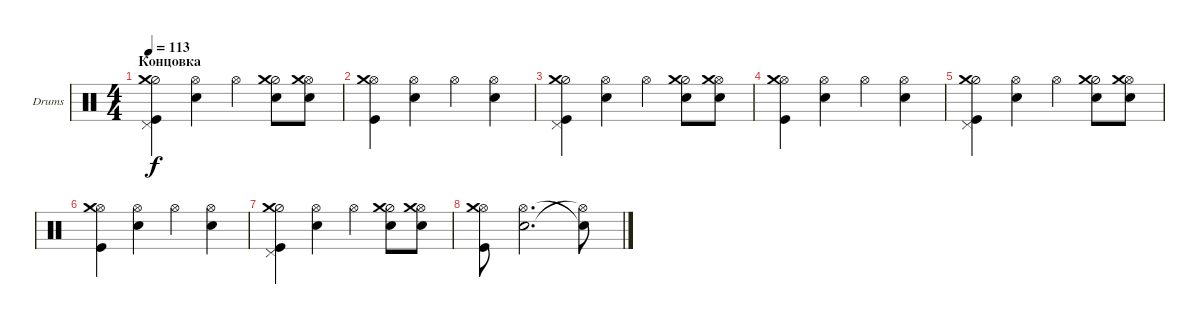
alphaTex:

\defaultSystemsLayout 4
\bracketExtendMode groupsimilarinstruments
\firstSystemTrackNameOrientation horizontal
\otherSystemsTrackNameOrientation horizontal
\track ("Е. Кулаков" "Drums") {instrument percussion}
\staff {score}
\articulation defaults
\ts (4 4)
\section ("" "Концовка")
\tempo 113
\clef neutral
\ks c
("Pedal Hi-Hat (hit)" "Kick (hit)" "Hi-Hat (half)" "Crash medium (hit)").4{dy f} ("Snare (hit) 2" "Hi-Hat (open)").4 "Hi-Hat (open)".4 ("Snare (hit) 2" "Hi-Hat (half)" "Crash medium (hit)").8 ("Hi-Hat (open)" "Snare (hit) 2" "Crash medium (hit)").8 |
("Hi-Hat (open)" "Kick (hit)" "Crash medium (hit)").4 ("Hi-Hat (open)" "Snare (hit) 2").4 "Hi-Hat (open)".4 ("Snare (hit) 2" "Hi-Hat (open)").4 |
("Pedal Hi-Hat (hit)" "Kick (hit)" "Hi-Hat (half)" "Crash medium (hit)").4 ("Snare (hit) 2" "Hi-Hat (open)").4 "Hi-Hat (open)".4 ("Snare (hit) 2" "Hi-Hat (half)" "Crash medium (hit)").8 ("Hi-Hat (open)" "Snare (hit) 2" "Crash medium (hit)").8 |
("Hi-Hat (open)" "Kick (hit)" "Crash medium (hit)").4 ("Hi-Hat (open)" "Snare (hit) 2").4 "Hi-Hat (open)".4 ("Snare (hit) 2" "Hi-Hat (open)").4 |
("Pedal Hi-Hat (hit)" "Kick (hit)" "Hi-Hat (half)" "Crash medium (hit)").4 ("Snare (hit) 2" "Hi-Hat (open)").4 "Hi-Hat (open)".4 ("Snare (hit) 2" "Hi-Hat (half)" "Crash medium (hit)").8 ("Hi-Hat (open)" "Snare (hit) 2" "Crash medium (hit)").8 |
("Hi-Hat (open)" "Kick (hit)" "Crash medium (hit)").4 ("Hi-Hat (open)" "Snare (hit) 2").4 "Hi-Hat (open)".4 ("Snare (hit) 2" "Hi-Hat (open)").4 |
("Pedal Hi-Hat (hit)" "Kick (hit)" "Hi-Hat (half)" "Crash medium (hit)").4 ("Snare (hit) 2" "Hi-Hat (open)").4 "Hi-Hat (open)".4 ("Snare (hit) 2" "Hi-Hat (half)" "Crash medium (hit)").8 ("Hi-Hat (open)" "Snare (hit) 2" "Crash medium (hit)").8 |
("Hi-Hat (open)" "Kick (hit)" "Crash medium (hit)").8 ("Hi-Hat (open)" "Snare (hit) 2").2{d} ("Snare (hit) 2"{t} "Hi-Hat (open)"{t}).8
